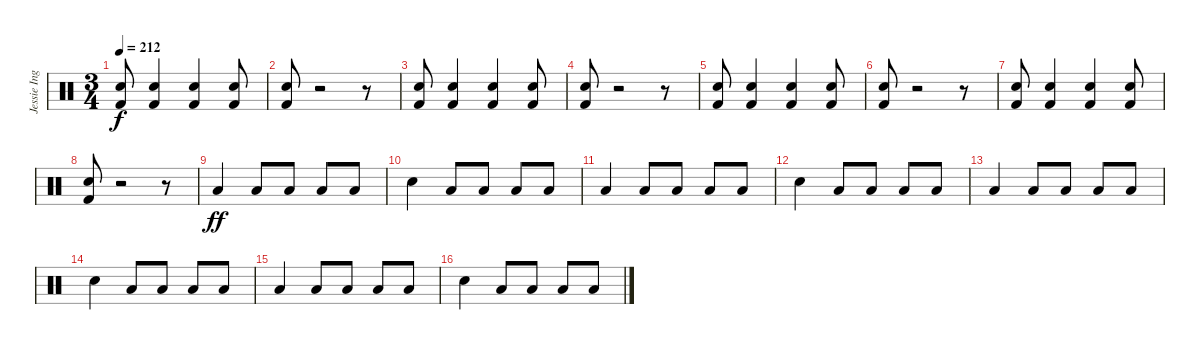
\track ("Jessie Ingelevics" "Jessie Ing") {instrument percussion}
\staff {score}
\articulation defaults
\ts (3 4)
\tempo 212
\clef neutral
\ks c
("Electric Snare (hit)" "Kick (hit) 2").8{dy f} ("Electric Snare (hit)" "Kick (hit) 2").4 ("Electric Snare (hit)" "Kick (hit) 2").4 ("Electric Snare (hit)" "Kick (hit) 2").8 |
("Electric Snare (hit)" "Kick (hit) 2").8 r.2 r.8 |
("Electric Snare (hit)" "Kick (hit) 2").8 ("Electric Snare (hit)" "Kick (hit) 2").4 ("Electric Snare (hit)" "Kick (hit) 2").4 ("Electric Snare (hit)" "Kick (hit) 2").8 |
("Electric Snare (hit)" "Kick (hit) 2").8 r.2 r.8 |
("Electric Snare (hit)" "Kick (hit) 2").8 ("Electric Snare (hit)" "Kick (hit) 2").4 ("Electric Snare (hit)" "Kick (hit) 2").4 ("Electric Snare (hit)" "Kick (hit) 2").8 |
("Electric Snare (hit)" "Kick (hit) 2").8 r.2 r.8 |
("Electric Snare (hit)" "Kick (hit) 2").8 ("Electric Snare (hit)" "Kick (hit) 2").4 ("Electric Snare (hit)" "Kick (hit) 2").4 ("Electric Snare (hit)" "Kick (hit) 2").8 |
("Electric Snare (hit)" "Kick (hit) 2").8 r.2 r.8 |
"Low Tom (hit)".4{dy ff} "Low Floor Tom (hit)".8 "Low Floor Tom (hit)".8 "Low Floor Tom (hit)".8 "Low Floor Tom (hit)".8 |
"Electric Snare (hit)".4 "Low Floor Tom (hit)".8 "Low Floor Tom (hit)".8 "Low Floor Tom (hit)".8 "Low Floor Tom (hit)".8 |
"Low Tom (hit)".4 "Low Floor Tom (hit)".8 "Low Floor Tom (hit)".8 "Low Floor Tom (hit)".8 "Low Floor Tom (hit)".8 |
"Electric Snare (hit)".4 "Low Floor Tom (hit)".8 "Low Floor Tom (hit)".8 "Low Floor Tom (hit)".8 "Low Floor Tom (hit)".8 |
"Low Tom (hit)".4 "Low Floor Tom (hit)".8 "Low Floor Tom (hit)".8 "Low Floor Tom (hit)".8 "Low Floor Tom (hit)".8 |
"Electric Snare (hit)".4 "Low Floor Tom (hit)".8 "Low Floor Tom (hit)".8 "Low Floor Tom (hit)".8 "Low Floor Tom (hit)".8 |
"Low Tom (hit)".4 "Low Floor Tom (hit)".8 "Low Floor Tom (hit)".8 "Low Floor Tom (hit)".8 "Low Floor Tom (hit)".8 |
"Electric Snare (hit)".4 "Low Floor Tom (hit)".8 "Low Floor Tom (hit)".8 "Low Floor Tom (hit)".8 "Low Floor Tom (hit)".8
